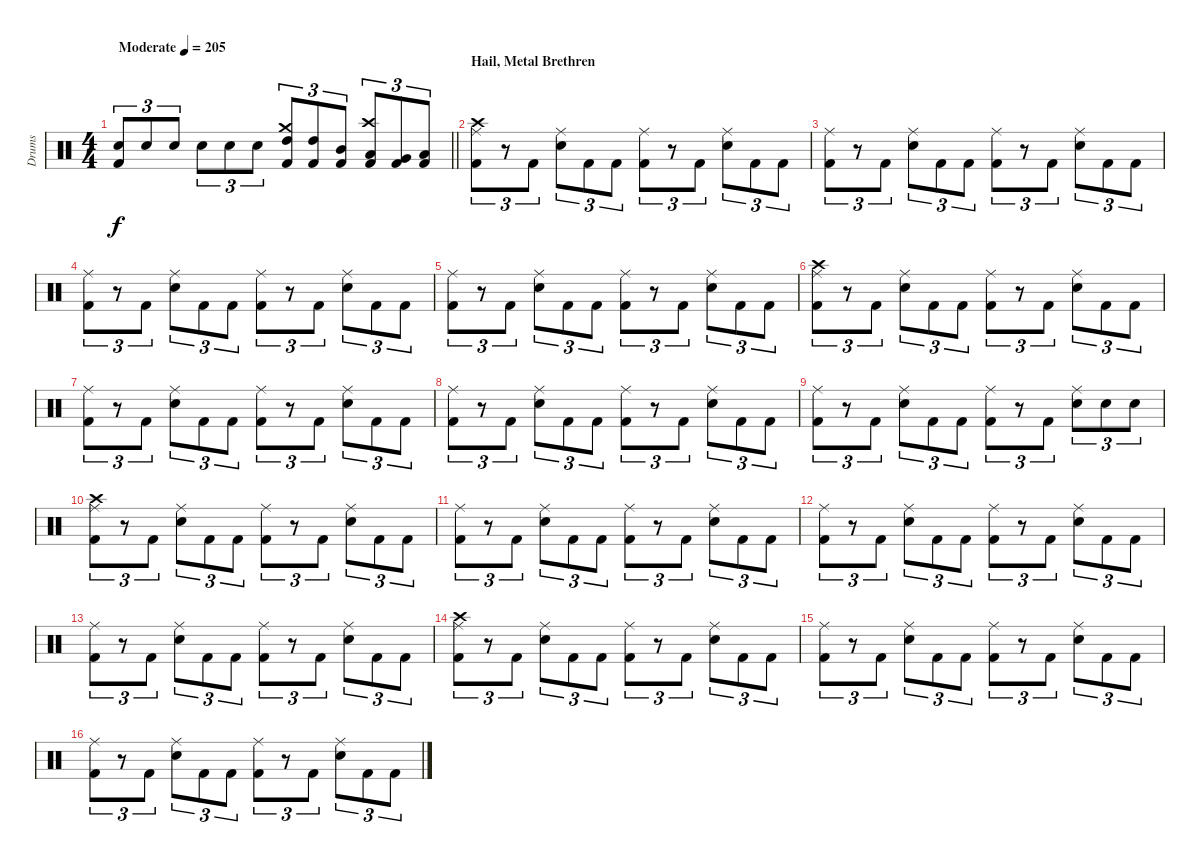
\track ("Drums" "Drums") {instrument percussion}
\staff {score}
\articulation defaults
\ts (4 4)
\tempo (205 "Moderate")
\clef neutral
\barLineRight lightlight
\ks c
("Snare (hit) 2" "Kick (hit) 2").8{tu (3 2) dy f} "Snare (hit) 2".8{tu (3 2)} "Snare (hit) 2".8{tu (3 2)} "Snare (hit) 2".8{tu (3 2)} "Snare (hit) 2".8{tu (3 2)} "Snare (hit) 2".8{tu (3 2)} ("Crash medium (hit)" "High Tom (hit)" "Kick (hit) 2").8{tu (3 2)} ("High Tom (hit)" "Kick (hit) 2").8{tu (3 2)} ("Mid Tom (hit)" "Kick (hit) 2").8{tu (3 2)} ("Crash high (hit)" "Low Tom (hit)" "Kick (hit) 2").8{tu (3 2)} ("Very Low Tom (hit)" "Kick (hit) 2").8{tu (3 2)} ("Low Floor Tom (hit)" "Kick (hit) 2").8{tu (3 2)} |
\section ("" "Hail, Metal Brethren")
("Crash high (hit)" "Ride (middle)" "Kick (hit) 2").8{tu (3 2)} r.8{tu (3 2)} "Kick (hit) 2".8{tu (3 2)} ("Ride (middle)" "Snare (hit) 2").8{tu (3 2)} "Kick (hit) 2".8{tu (3 2)} "Kick (hit) 2".8{tu (3 2)} ("Ride (middle)" "Kick (hit) 2").8{tu (3 2)} r.8{tu (3 2)} "Kick (hit) 2".8{tu (3 2)} ("Ride (middle)" "Snare (hit) 2").8{tu (3 2)} "Kick (hit) 2".8{tu (3 2)} "Kick (hit) 2".8{tu (3 2)} |
("Ride (middle)" "Kick (hit) 2").8{tu (3 2)} r.8{tu (3 2)} "Kick (hit) 2".8{tu (3 2)} ("Ride (middle)" "Snare (hit) 2").8{tu (3 2)} "Kick (hit) 2".8{tu (3 2)} "Kick (hit) 2".8{tu (3 2)} ("Ride (middle)" "Kick (hit) 2").8{tu (3 2)} r.8{tu (3 2)} "Kick (hit) 2".8{tu (3 2)} ("Ride (middle)" "Snare (hit) 2").8{tu (3 2)} "Kick (hit) 2".8{tu (3 2)} "Kick (hit) 2".8{tu (3 2)} |
("Ride (middle)" "Kick (hit) 2").8{tu (3 2)} r.8{tu (3 2)} "Kick (hit) 2".8{tu (3 2)} ("Ride (middle)" "Snare (hit) 2").8{tu (3 2)} "Kick (hit) 2".8{tu (3 2)} "Kick (hit) 2".8{tu (3 2)} ("Ride (middle)" "Kick (hit) 2").8{tu (3 2)} r.8{tu (3 2)} "Kick (hit) 2".8{tu (3 2)} ("Ride (middle)" "Snare (hit) 2").8{tu (3 2)} "Kick (hit) 2".8{tu (3 2)} "Kick (hit) 2".8{tu (3 2)} |
("Ride (middle)" "Kick (hit) 2").8{tu (3 2)} r.8{tu (3 2)} "Kick (hit) 2".8{tu (3 2)} ("Ride (middle)" "Snare (hit) 2").8{tu (3 2)} "Kick (hit) 2".8{tu (3 2)} "Kick (hit) 2".8{tu (3 2)} ("Ride (middle)" "Kick (hit) 2").8{tu (3 2)} r.8{tu (3 2)} "Kick (hit) 2".8{tu (3 2)} ("Ride (middle)" "Snare (hit) 2").8{tu (3 2)} "Kick (hit) 2".8{tu (3 2)} "Kick (hit) 2".8{tu (3 2)} |
("Crash high (hit)" "Ride (middle)" "Kick (hit) 2").8{tu (3 2)} r.8{tu (3 2)} "Kick (hit) 2".8{tu (3 2)} ("Ride (middle)" "Snare (hit) 2").8{tu (3 2)} "Kick (hit) 2".8{tu (3 2)} "Kick (hit) 2".8{tu (3 2)} ("Ride (middle)" "Kick (hit) 2").8{tu (3 2)} r.8{tu (3 2)} "Kick (hit) 2".8{tu (3 2)} ("Ride (middle)" "Snare (hit) 2").8{tu (3 2)} "Kick (hit) 2".8{tu (3 2)} "Kick (hit) 2".8{tu (3 2)} |
("Ride (middle)" "Kick (hit) 2").8{tu (3 2)} r.8{tu (3 2)} "Kick (hit) 2".8{tu (3 2)} ("Ride (middle)" "Snare (hit) 2").8{tu (3 2)} "Kick (hit) 2".8{tu (3 2)} "Kick (hit) 2".8{tu (3 2)} ("Ride (middle)" "Kick (hit) 2").8{tu (3 2)} r.8{tu (3 2)} "Kick (hit) 2".8{tu (3 2)} ("Ride (middle)" "Snare (hit) 2").8{tu (3 2)} "Kick (hit) 2".8{tu (3 2)} "Kick (hit) 2".8{tu (3 2)} |
("Ride (middle)" "Kick (hit) 2").8{tu (3 2)} r.8{tu (3 2)} "Kick (hit) 2".8{tu (3 2)} ("Ride (middle)" "Snare (hit) 2").8{tu (3 2)} "Kick (hit) 2".8{tu (3 2)} "Kick (hit) 2".8{tu (3 2)} ("Ride (middle)" "Kick (hit) 2").8{tu (3 2)} r.8{tu (3 2)} "Kick (hit) 2".8{tu (3 2)} ("Ride (middle)" "Snare (hit) 2").8{tu (3 2)} "Kick (hit) 2".8{tu (3 2)} "Kick (hit) 2".8{tu (3 2)} |
("Ride (middle)" "Kick (hit) 2").8{tu (3 2)} r.8{tu (3 2)} "Kick (hit) 2".8{tu (3 2)} ("Ride (middle)" "Snare (hit) 2").8{tu (3 2)} "Kick (hit) 2".8{tu (3 2)} "Kick (hit) 2".8{tu (3 2)} ("Ride (middle)" "Kick (hit) 2").8{tu (3 2)} r.8{tu (3 2)} "Kick (hit) 2".8{tu (3 2)} ("Ride (middle)" "Snare (hit) 2").8{tu (3 2)} "Snare (hit) 2".8{tu (3 2)} "Snare (hit) 2".8{tu (3 2)} |
("Crash high (hit)" "Ride (middle)" "Kick (hit) 2").8{tu (3 2)} r.8{tu (3 2)} "Kick (hit) 2".8{tu (3 2)} ("Ride (middle)" "Snare (hit) 2").8{tu (3 2)} "Kick (hit) 2".8{tu (3 2)} "Kick (hit) 2".8{tu (3 2)} ("Ride (middle)" "Kick (hit) 2").8{tu (3 2)} r.8{tu (3 2)} "Kick (hit) 2".8{tu (3 2)} ("Ride (middle)" "Snare (hit) 2").8{tu (3 2)} "Kick (hit) 2".8{tu (3 2)} "Kick (hit) 2".8{tu (3 2)} |
("Ride (middle)" "Kick (hit) 2").8{tu (3 2)} r.8{tu (3 2)} "Kick (hit) 2".8{tu (3 2)} ("Ride (middle)" "Snare (hit) 2").8{tu (3 2)} "Kick (hit) 2".8{tu (3 2)} "Kick (hit) 2".8{tu (3 2)} ("Ride (middle)" "Kick (hit) 2").8{tu (3 2)} r.8{tu (3 2)} "Kick (hit) 2".8{tu (3 2)} ("Ride (middle)" "Snare (hit) 2").8{tu (3 2)} "Kick (hit) 2".8{tu (3 2)} "Kick (hit) 2".8{tu (3 2)} |
("Ride (middle)" "Kick (hit) 2").8{tu (3 2)} r.8{tu (3 2)} "Kick (hit) 2".8{tu (3 2)} ("Ride (middle)" "Snare (hit) 2").8{tu (3 2)} "Kick (hit) 2".8{tu (3 2)} "Kick (hit) 2".8{tu (3 2)} ("Ride (middle)" "Kick (hit) 2").8{tu (3 2)} r.8{tu (3 2)} "Kick (hit) 2".8{tu (3 2)} ("Ride (middle)" "Snare (hit) 2").8{tu (3 2)} "Kick (hit) 2".8{tu (3 2)} "Kick (hit) 2".8{tu (3 2)} |
("Ride (middle)" "Kick (hit) 2").8{tu (3 2)} r.8{tu (3 2)} "Kick (hit) 2".8{tu (3 2)} ("Ride (middle)" "Snare (hit) 2").8{tu (3 2)} "Kick (hit) 2".8{tu (3 2)} "Kick (hit) 2".8{tu (3 2)} ("Ride (middle)" "Kick (hit) 2").8{tu (3 2)} r.8{tu (3 2)} "Kick (hit) 2".8{tu (3 2)} ("Ride (middle)" "Snare (hit) 2").8{tu (3 2)} "Kick (hit) 2".8{tu (3 2)} "Kick (hit) 2".8{tu (3 2)} |
("Crash high (hit)" "Ride (middle)" "Kick (hit) 2").8{tu (3 2)} r.8{tu (3 2)} "Kick (hit) 2".8{tu (3 2)} ("Ride (middle)" "Snare (hit) 2").8{tu (3 2)} "Kick (hit) 2".8{tu (3 2)} "Kick (hit) 2".8{tu (3 2)} ("Ride (middle)" "Kick (hit) 2").8{tu (3 2)} r.8{tu (3 2)} "Kick (hit) 2".8{tu (3 2)} ("Ride (middle)" "Snare (hit) 2").8{tu (3 2)} "Kick (hit) 2".8{tu (3 2)} "Kick (hit) 2".8{tu (3 2)} |
("Ride (middle)" "Kick (hit) 2").8{tu (3 2)} r.8{tu (3 2)} "Kick (hit) 2".8{tu (3 2)} ("Ride (middle)" "Snare (hit) 2").8{tu (3 2)} "Kick (hit) 2".8{tu (3 2)} "Kick (hit) 2".8{tu (3 2)} ("Ride (middle)" "Kick (hit) 2").8{tu (3 2)} r.8{tu (3 2)} "Kick (hit) 2".8{tu (3 2)} ("Ride (middle)" "Snare (hit) 2").8{tu (3 2)} "Kick (hit) 2".8{tu (3 2)} "Kick (hit) 2".8{tu (3 2)} |
("Ride (middle)" "Kick (hit) 2").8{tu (3 2)} r.8{tu (3 2)} "Kick (hit) 2".8{tu (3 2)} ("Ride (middle)" "Snare (hit) 2").8{tu (3 2)} "Kick (hit) 2".8{tu (3 2)} "Kick (hit) 2".8{tu (3 2)} ("Ride (middle)" "Kick (hit) 2").8{tu (3 2)} r.8{tu (3 2)} "Kick (hit) 2".8{tu (3 2)} ("Ride (middle)" "Snare (hit) 2").8{tu (3 2)} "Kick (hit) 2".8{tu (3 2)} "Kick (hit) 2".8{tu (3 2)}
